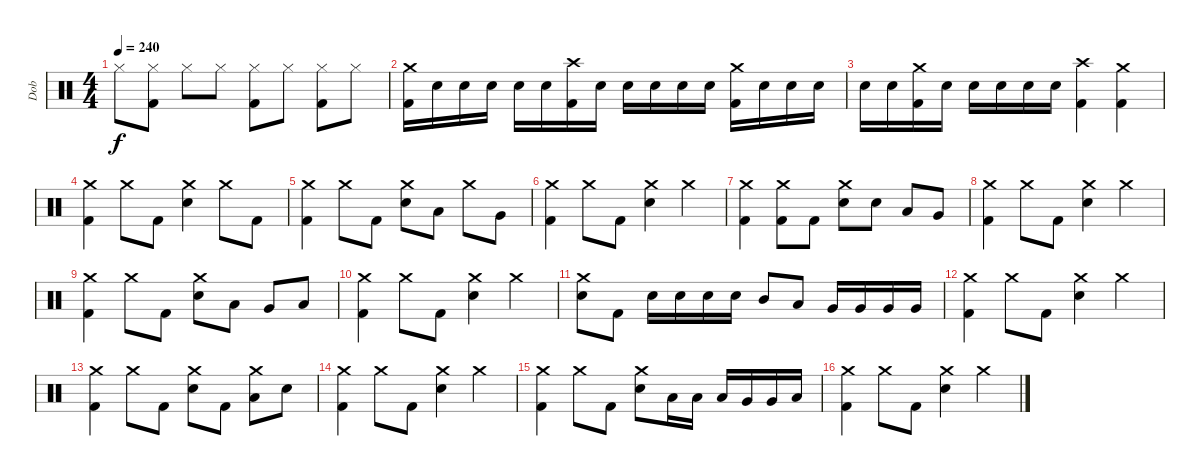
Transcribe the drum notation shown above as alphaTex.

\track ("Dob" "Dob") {instrument percussion}
\staff {score}
\articulation defaults
\ts (4 4)
\tempo 240
\clef neutral
\ks c "Hi-Hat (closed)".8{dy f}
("Hi-Hat (closed)" "Kick (hit) 2").8 "Hi-Hat (closed)".8 "Hi-Hat (closed)".8 ("Hi-Hat (closed)" "Kick (hit) 2").8 "Hi-Hat (closed)".8 ("Hi-Hat (closed)" "Kick (hit) 2").8 "Hi-Hat (closed)".8 |
("Crash medium (hit)" "Kick (hit) 2").16 "Electric Snare (hit)".16 "Electric Snare (hit)".16 "Electric Snare (hit)".16 "Electric Snare (hit)".16 "Electric Snare (hit)".16 ("Crash high (hit)" "Kick (hit) 2").16 "Electric Snare (hit)".16 "Electric Snare (hit)".16 "Electric Snare (hit)".16 "Electric Snare (hit)".16 "Electric Snare (hit)".16 ("Crash medium (hit)" "Kick (hit) 2").16 "Electric Snare (hit)".16 "Electric Snare (hit)".16 "Electric Snare (hit)".16 |
"Electric Snare (hit)".16 "Electric Snare (hit)".16 ("Crash medium (hit)" "Kick (hit) 2").16 "Electric Snare (hit)".16 "Electric Snare (hit)".16 "Electric Snare (hit)".16 "Electric Snare (hit)".16 "Electric Snare (hit)".16 ("Crash high (hit)" "Kick (hit) 2").4 ("Crash medium (hit)" "Kick (hit) 2").4 |
("Crash medium (hit)" "Kick (hit) 2").4 "Crash medium (hit)".8 "Kick (hit) 2".8 ("Crash medium (hit)" "Electric Snare (hit)").4 "Crash medium (hit)".8 "Kick (hit) 2".8 |
("Crash medium (hit)" "Kick (hit) 2").4 "Crash medium (hit)".8 "Kick (hit) 2".8 ("Crash medium (hit)" "Electric Snare (hit)").8 "Low Tom (hit)".8 "Crash medium (hit)".8 "Very Low Tom (hit)".8 |
("Crash medium (hit)" "Kick (hit) 2").4 "Crash medium (hit)".8 "Kick (hit) 2".8 ("Crash medium (hit)" "Electric Snare (hit)").4 "Crash medium (hit)".4 |
("Crash medium (hit)" "Kick (hit) 2").4 ("Crash medium (hit)" "Kick (hit) 2").8 "Kick (hit) 2".8 ("Crash medium (hit)" "Electric Snare (hit)").8 "Electric Snare (hit)".8 "Low Tom (hit)".8 "Very Low Tom (hit)".8 |
("Crash medium (hit)" "Kick (hit) 2").4 "Crash medium (hit)".8 "Kick (hit) 2".8 ("Crash medium (hit)" "Electric Snare (hit)").4 "Crash medium (hit)".4 |
("Crash medium (hit)" "Kick (hit) 2").4 "Crash medium (hit)".8 "Kick (hit) 2".8 ("Crash medium (hit)" "Electric Snare (hit)").8 "Low Tom (hit)".8 "Very Low Tom (hit)".8 "Low Floor Tom (hit)".8 |
("Crash medium (hit)" "Kick (hit) 2").4 "Crash medium (hit)".8 "Kick (hit) 2".8 ("Crash medium (hit)" "Electric Snare (hit)").4 "Crash medium (hit)".4 |
("Crash medium (hit)" "Electric Snare (hit)").8 "Kick (hit) 2".8 "Electric Snare (hit)".16 "Electric Snare (hit)".16 "Electric Snare (hit)".16 "Electric Snare (hit)".16 "Mid Tom (hit)".8 "Low Tom (hit)".8 "Very Low Tom (hit)".16 "Very Low Tom (hit)".16 "Very Low Tom (hit)".16 "Very Low Tom (hit)".16 |
("Crash medium (hit)" "Kick (hit) 2").4 "Crash medium (hit)".8 "Kick (hit) 2".8 ("Crash medium (hit)" "Electric Snare (hit)").4 "Crash medium (hit)".4 |
("Crash medium (hit)" "Kick (hit) 2").4 "Crash medium (hit)".8 "Kick (hit) 2".8 ("Crash medium (hit)" "Electric Snare (hit)").8 "Kick (hit) 2".8 ("Crash medium (hit)" "Low Tom (hit)").8 "Electric Snare (hit)".8 |
("Crash medium (hit)" "Kick (hit) 2").4 "Crash medium (hit)".8 "Kick (hit) 2".8 ("Crash medium (hit)" "Electric Snare (hit)").4 "Crash medium (hit)".4 |
("Crash medium (hit)" "Kick (hit) 2").4 "Crash medium (hit)".8 "Kick (hit) 2".8 ("Crash medium (hit)" "Electric Snare (hit)").8 "Low Tom (hit)".16 "Low Tom (hit)".16 "Low Tom (hit)".16 "Very Low Tom (hit)".16 "Very Low Tom (hit)".16 "Low Floor Tom (hit)".16 |
("Crash medium (hit)" "Kick (hit) 2").4 "Crash medium (hit)".8 "Kick (hit) 2".8 ("Crash medium (hit)" "Electric Snare (hit)").4 "Crash medium (hit)".4
